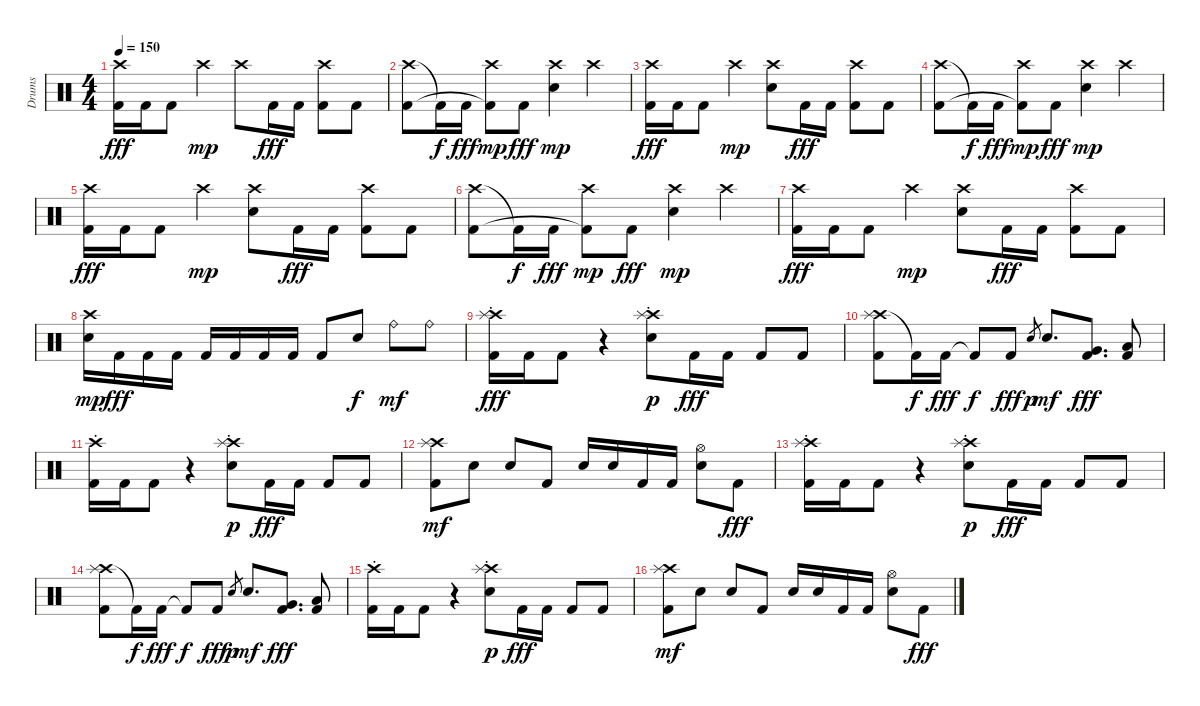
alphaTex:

\track ("Drums" "Drums") {instrument percussion}
\staff {score}
\articulation defaults
\ts (4 4)
\tempo 150
\clef neutral
\ks c
("Crash high (hit)" "Kick (hit) 2").16{dy fff} "Kick (hit) 2".16 "Kick (hit) 2".8 "Crash high (hit)".4{dy mp} "Crash high (hit)".8 "Kick (hit) 2".16{dy fff} "Kick (hit) 2".16 ("Crash high (hit)" "Kick (hit) 2").8 "Kick (hit) 2".8 |
("Crash high (hit)" "Kick (hit) 2").8 "Kick (hit) 2"{t}.16{dy f} "Kick (hit) 2".16{dy fff} ("Crash high (hit)" "Kick (hit) 2"{t}).8{dy mp} "Kick (hit) 2".8{dy fff} ("Crash high (hit)" "Electric Snare (hit)").4{dy mp} "Crash high (hit)".4 |
("Crash high (hit)" "Kick (hit) 2").16{dy fff} "Kick (hit) 2".16 "Kick (hit) 2".8 "Crash high (hit)".4{dy mp} ("Crash high (hit)" "Electric Snare (hit)").8 "Kick (hit) 2".16{dy fff} "Kick (hit) 2".16 ("Crash high (hit)" "Kick (hit) 2").8 "Kick (hit) 2".8 |
("Crash high (hit)" "Kick (hit) 2").8 "Kick (hit) 2"{t}.16{dy f} "Kick (hit) 2".16{dy fff} ("Crash high (hit)" "Kick (hit) 2"{t}).8{dy mp} "Kick (hit) 2".8{dy fff} ("Crash high (hit)" "Electric Snare (hit)").4{dy mp} "Crash high (hit)".4 |
("Crash high (hit)" "Kick (hit) 2").16{dy fff} "Kick (hit) 2".16 "Kick (hit) 2".8 "Crash high (hit)".4{dy mp} ("Crash high (hit)" "Electric Snare (hit)").8 "Kick (hit) 2".16{dy fff} "Kick (hit) 2".16 ("Crash high (hit)" "Kick (hit) 2").8 "Kick (hit) 2".8 |
("Crash high (hit)" "Kick (hit) 2").8 "Kick (hit) 2"{t}.16{dy f} "Kick (hit) 2".16{dy fff} ("Crash high (hit)" "Kick (hit) 2"{t}).8{dy mp} "Kick (hit) 2".8{dy fff} ("Crash high (hit)" "Electric Snare (hit)").4{dy mp} "Crash high (hit)".4 |
("Crash high (hit)" "Kick (hit) 2").16{dy fff} "Kick (hit) 2".16 "Kick (hit) 2".8 "Crash high (hit)".4{dy mp} ("Crash high (hit)" "Electric Snare (hit)").8 "Kick (hit) 2".16{dy fff} "Kick (hit) 2".16 ("Crash high (hit)" "Kick (hit) 2").8 "Kick (hit) 2".8 |
("Crash high (hit)" "Electric Snare (hit)").16{dy mp} "Kick (hit) 2".16{dy fff} "Kick (hit) 2".16 "Kick (hit) 2".16 "Kick (hit) 2".16 "Kick (hit) 2".16 "Kick (hit) 2".16 "Kick (hit) 2".16 "Kick (hit) 2".8 "Electric Snare (hit)".8{dy f} "Ride (bell)".8{dy mf} "Ride (bell)".8 |
("Crash high (hit)"{st} "Splash (hit)" "Kick (hit) 2").16{dy fff} "Kick (hit) 2".16 "Kick (hit) 2".8 r.4 ("Crash high (hit)"{st} "Splash (hit)" "Electric Snare (hit)").8{dy p} "Kick (hit) 2".16{dy fff} "Kick (hit) 2".16 "Kick (hit) 2".8 "Kick (hit) 2".8 |
("Crash high (hit)" "Splash (hit)" "Kick (hit) 2").8 "Kick (hit) 2"{t}.16{dy f} "Kick (hit) 2".16{dy fff} "Kick (hit) 2"{t}.8{dy f} "Kick (hit) 2".8{dy fff} "Electric Snare (hit)".8{gr dy p} "Electric Snare (hit)".8{d dy mf} ("Very Low Tom (hit)" "Kick (hit) 2").8{d dy fff} ("Low Floor Tom (hit)" "Kick (hit) 2").8 |
("Crash high (hit)"{st} "Kick (hit) 2").16 "Kick (hit) 2".16 "Kick (hit) 2".8 r.4 ("Crash high (hit)"{st} "Splash (hit)" "Electric Snare (hit)").8{dy p} "Kick (hit) 2".16{dy fff} "Kick (hit) 2".16 "Kick (hit) 2".8 "Kick (hit) 2".8 |
("Crash high (hit)" "Splash (hit)" "Kick (hit) 2").8{dy mf} "Electric Snare (hit)".8 "Electric Snare (hit)".8 "Kick (hit) 2".8 "Electric Snare (hit)".16 "Electric Snare (hit)".16 "Kick (hit) 2".16 "Kick (hit) 2".16 ("Hi-Hat (open)" "Electric Snare (hit)").8 "Kick (hit) 2".8{dy fff} |
("Crash high (hit)"{st} "Splash (hit)" "Kick (hit) 2").16 "Kick (hit) 2".16 "Kick (hit) 2".8 r.4 ("Crash high (hit)"{st} "Splash (hit)" "Electric Snare (hit)").8{dy p} "Kick (hit) 2".16{dy fff} "Kick (hit) 2".16 "Kick (hit) 2".8 "Kick (hit) 2".8 |
("Crash high (hit)" "Splash (hit)" "Kick (hit) 2").8 "Kick (hit) 2"{t}.16{dy f} "Kick (hit) 2".16{dy fff} "Kick (hit) 2"{t}.8{dy f} "Kick (hit) 2".8{dy fff} "Electric Snare (hit)".8{gr dy p} "Electric Snare (hit)".8{d dy mf} ("Very Low Tom (hit)" "Kick (hit) 2").8{d dy fff} ("Low Floor Tom (hit)" "Kick (hit) 2").8 |
("Crash high (hit)"{st} "Kick (hit) 2").16 "Kick (hit) 2".16 "Kick (hit) 2".8 r.4 ("Crash high (hit)"{st} "Splash (hit)" "Electric Snare (hit)").8{dy p} "Kick (hit) 2".16{dy fff} "Kick (hit) 2".16 "Kick (hit) 2".8 "Kick (hit) 2".8 |
("Crash high (hit)" "Splash (hit)" "Kick (hit) 2").8{dy mf} "Electric Snare (hit)".8 "Electric Snare (hit)".8 "Kick (hit) 2".8 "Electric Snare (hit)".16 "Electric Snare (hit)".16 "Kick (hit) 2".16 "Kick (hit) 2".16 ("Hi-Hat (open)" "Electric Snare (hit)").8 "Kick (hit) 2".8{dy fff}
